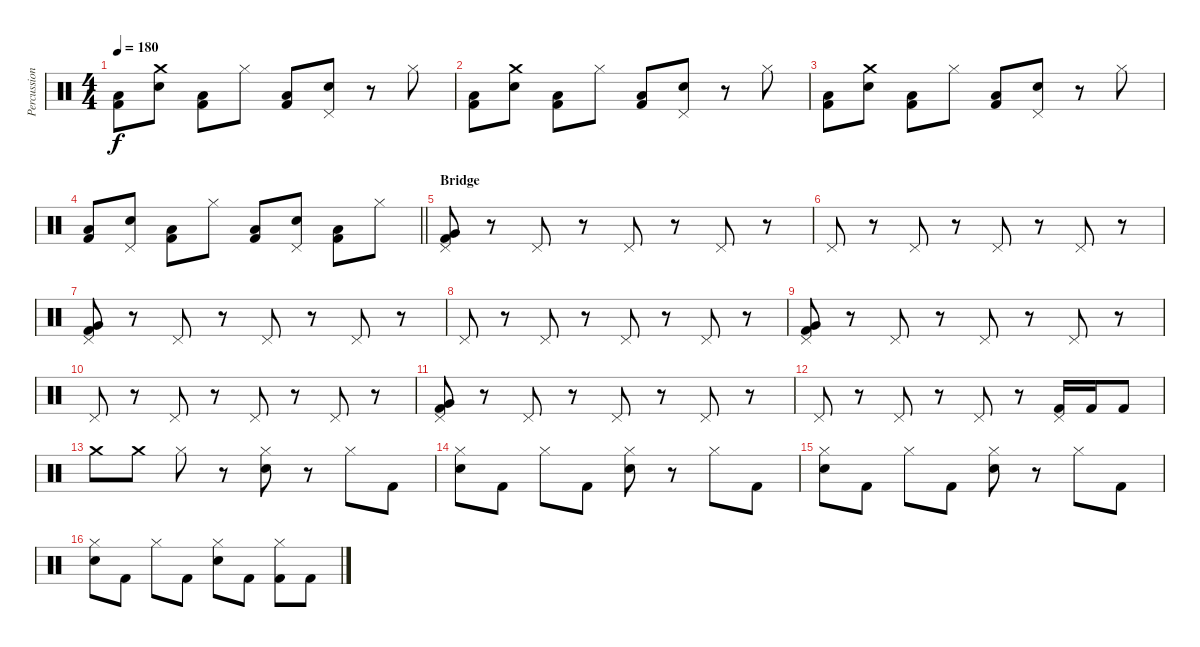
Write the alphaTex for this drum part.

\track ("Percussion" "Percussion") {instrument percussion}
\staff {score}
\articulation defaults
\ts (4 4)
\tempo 180
\clef neutral
\ks c
("Low Floor Tom (hit)" "Kick (hit) 2").8{dy f} ("Crash medium (hit)" "Electric Snare (hit)").8 ("Low Floor Tom (hit)" "Kick (hit) 2").8 "Hi-Hat (closed)".8 ("Low Floor Tom (hit)" "Kick (hit) 2").8 ("Pedal Hi-Hat (hit)" "Electric Snare (hit)").8 r.8 "Hi-Hat (closed)".8 |
("Low Floor Tom (hit)" "Kick (hit) 2").8 ("Crash medium (hit)" "Electric Snare (hit)").8 ("Low Floor Tom (hit)" "Kick (hit) 2").8 "Hi-Hat (closed)".8 ("Low Floor Tom (hit)" "Kick (hit) 2").8 ("Pedal Hi-Hat (hit)" "Electric Snare (hit)").8 r.8 "Hi-Hat (closed)".8 |
("Low Floor Tom (hit)" "Kick (hit) 2").8 ("Crash medium (hit)" "Electric Snare (hit)").8 ("Low Floor Tom (hit)" "Kick (hit) 2").8 "Hi-Hat (closed)".8 ("Low Floor Tom (hit)" "Kick (hit) 2").8 ("Pedal Hi-Hat (hit)" "Electric Snare (hit)").8 r.8 "Hi-Hat (closed)".8 |
\barLineRight lightlight
("Low Floor Tom (hit)" "Kick (hit) 2").8 ("Pedal Hi-Hat (hit)" "Electric Snare (hit)").8 ("Low Floor Tom (hit)" "Kick (hit) 2").8 "Hi-Hat (closed)".8 ("Low Floor Tom (hit)" "Kick (hit) 2").8 ("Pedal Hi-Hat (hit)" "Electric Snare (hit)").8 ("Low Floor Tom (hit)" "Kick (hit) 2").8 "Hi-Hat (closed)".8 |
\section ("" "Bridge")
("Pedal Hi-Hat (hit)" "Very Low Tom (hit)" "Kick (hit) 2").8 r.8 "Pedal Hi-Hat (hit)".8 r.8 "Pedal Hi-Hat (hit)".8 r.8 "Pedal Hi-Hat (hit)".8 r.8 |
"Pedal Hi-Hat (hit)".8 r.8 "Pedal Hi-Hat (hit)".8 r.8 "Pedal Hi-Hat (hit)".8 r.8 "Pedal Hi-Hat (hit)".8 r.8 |
("Pedal Hi-Hat (hit)" "Very Low Tom (hit)" "Kick (hit) 2").8 r.8 "Pedal Hi-Hat (hit)".8 r.8 "Pedal Hi-Hat (hit)".8 r.8 "Pedal Hi-Hat (hit)".8 r.8 |
"Pedal Hi-Hat (hit)".8 r.8 "Pedal Hi-Hat (hit)".8 r.8 "Pedal Hi-Hat (hit)".8 r.8 "Pedal Hi-Hat (hit)".8 r.8 |
("Pedal Hi-Hat (hit)" "Very Low Tom (hit)" "Kick (hit) 2").8 r.8 "Pedal Hi-Hat (hit)".8 r.8 "Pedal Hi-Hat (hit)".8 r.8 "Pedal Hi-Hat (hit)".8 r.8 |
"Pedal Hi-Hat (hit)".8 r.8 "Pedal Hi-Hat (hit)".8 r.8 "Pedal Hi-Hat (hit)".8 r.8 "Pedal Hi-Hat (hit)".8 r.8 |
("Pedal Hi-Hat (hit)" "Very Low Tom (hit)" "Kick (hit) 2").8 r.8 "Pedal Hi-Hat (hit)".8 r.8 "Pedal Hi-Hat (hit)".8 r.8 "Pedal Hi-Hat (hit)".8 r.8 |
"Pedal Hi-Hat (hit)".8 r.8 "Pedal Hi-Hat (hit)".8 r.8 "Pedal Hi-Hat (hit)".8 r.8 ("Pedal Hi-Hat (hit)" "Kick (hit) 2").16 "Kick (hit) 2".16 "Kick (hit) 2".8 |
"Crash medium (hit)".8 "Crash medium (hit)".8 "Hi-Hat (closed)".8 r.8 ("Hi-Hat (closed)" "Electric Snare (hit)").8 r.8 "Hi-Hat (closed)".8 "Kick (hit) 2".8 |
("Hi-Hat (closed)" "Electric Snare (hit)").8 "Kick (hit) 2".8 "Hi-Hat (closed)".8 "Kick (hit) 2".8 ("Hi-Hat (closed)" "Electric Snare (hit)").8 r.8 "Hi-Hat (closed)".8 "Kick (hit) 2".8 |
("Hi-Hat (closed)" "Electric Snare (hit)").8 "Kick (hit) 2".8 "Hi-Hat (closed)".8 "Kick (hit) 2".8 ("Hi-Hat (closed)" "Electric Snare (hit)").8 r.8 "Hi-Hat (closed)".8 "Kick (hit) 2".8 |
("Hi-Hat (closed)" "Electric Snare (hit)").8 "Kick (hit) 2".8 "Hi-Hat (closed)".8 "Kick (hit) 2".8 ("Hi-Hat (closed)" "Electric Snare (hit)").8 "Kick (hit) 2".8 ("Hi-Hat (closed)" "Kick (hit) 2").8 "Kick (hit) 2".8
